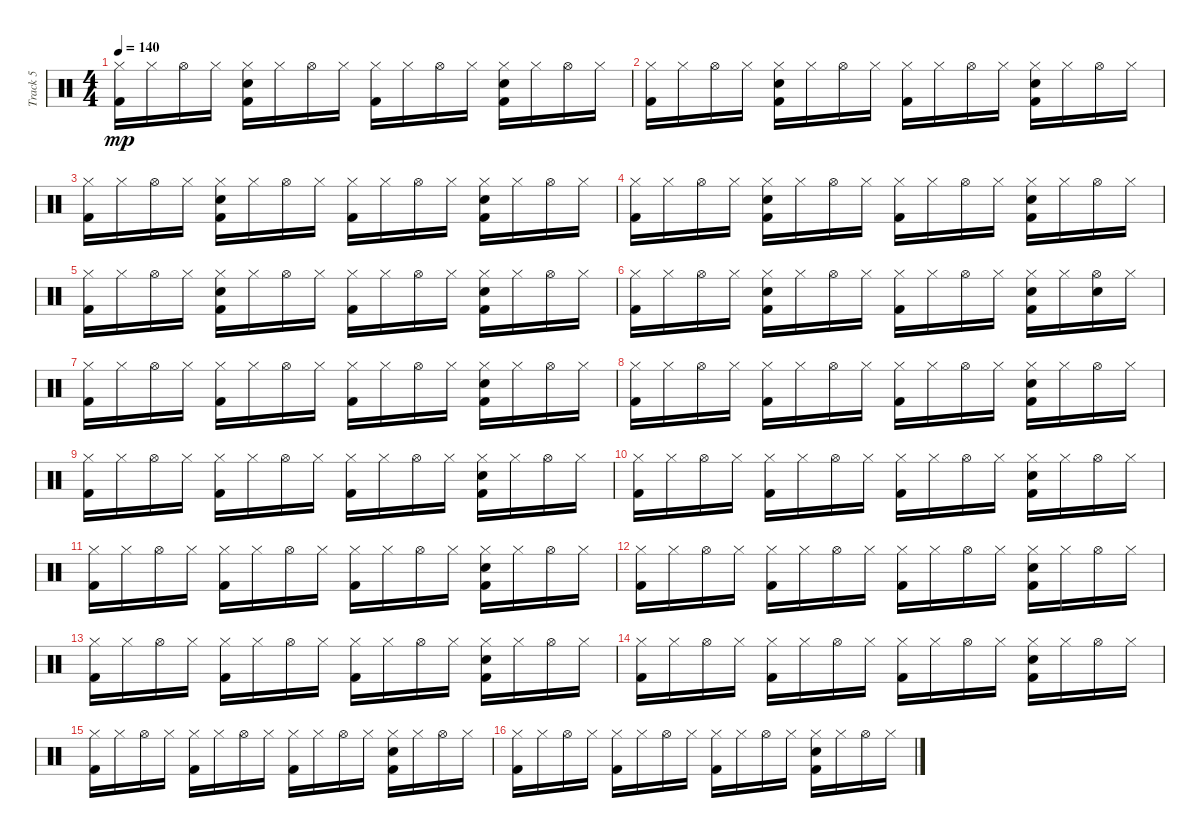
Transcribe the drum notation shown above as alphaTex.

\track ("Track 5" "Track 5") {instrument percussion}
\staff {score}
\articulation defaults
\ts (4 4)
\tempo 140
\clef neutral
\ks c
("Hi-Hat (closed)" "Kick (hit) 2").16{dy mp} "Hi-Hat (closed)".16 "Hi-Hat (open)".16 "Hi-Hat (closed)".16 ("Hi-Hat (closed)" "Electric Snare (hit)" "Kick (hit) 2").16 "Hi-Hat (closed)".16 "Hi-Hat (open)".16 "Hi-Hat (closed)".16 ("Hi-Hat (closed)" "Kick (hit) 2").16 "Hi-Hat (closed)".16 "Hi-Hat (open)".16 "Hi-Hat (closed)".16 ("Hi-Hat (closed)" "Electric Snare (hit)" "Kick (hit) 2").16 "Hi-Hat (closed)".16 "Hi-Hat (open)".16 "Hi-Hat (closed)".16 |
("Hi-Hat (closed)" "Kick (hit) 2").16 "Hi-Hat (closed)".16 "Hi-Hat (open)".16 "Hi-Hat (closed)".16 ("Hi-Hat (closed)" "Electric Snare (hit)" "Kick (hit) 2").16 "Hi-Hat (closed)".16 "Hi-Hat (open)".16 "Hi-Hat (closed)".16 ("Hi-Hat (closed)" "Kick (hit) 2").16 "Hi-Hat (closed)".16 "Hi-Hat (open)".16 "Hi-Hat (closed)".16 ("Hi-Hat (closed)" "Electric Snare (hit)" "Kick (hit) 2").16 "Hi-Hat (closed)".16 "Hi-Hat (open)".16 "Hi-Hat (closed)".16 |
("Hi-Hat (closed)" "Kick (hit) 2").16 "Hi-Hat (closed)".16 "Hi-Hat (open)".16 "Hi-Hat (closed)".16 ("Hi-Hat (closed)" "Electric Snare (hit)" "Kick (hit) 2").16 "Hi-Hat (closed)".16 "Hi-Hat (open)".16 "Hi-Hat (closed)".16 ("Hi-Hat (closed)" "Kick (hit) 2").16 "Hi-Hat (closed)".16 "Hi-Hat (open)".16 "Hi-Hat (closed)".16 ("Hi-Hat (closed)" "Electric Snare (hit)" "Kick (hit) 2").16 "Hi-Hat (closed)".16 "Hi-Hat (open)".16 "Hi-Hat (closed)".16 |
("Hi-Hat (closed)" "Kick (hit) 2").16 "Hi-Hat (closed)".16 "Hi-Hat (open)".16 "Hi-Hat (closed)".16 ("Hi-Hat (closed)" "Electric Snare (hit)" "Kick (hit) 2").16 "Hi-Hat (closed)".16 "Hi-Hat (open)".16 "Hi-Hat (closed)".16 ("Hi-Hat (closed)" "Kick (hit) 2").16 "Hi-Hat (closed)".16 "Hi-Hat (open)".16 "Hi-Hat (closed)".16 ("Hi-Hat (closed)" "Electric Snare (hit)" "Kick (hit) 2").16 "Hi-Hat (closed)".16 "Hi-Hat (open)".16 "Hi-Hat (closed)".16 |
("Hi-Hat (closed)" "Kick (hit) 2").16 "Hi-Hat (closed)".16 "Hi-Hat (open)".16 "Hi-Hat (closed)".16 ("Hi-Hat (closed)" "Electric Snare (hit)" "Kick (hit) 2").16 "Hi-Hat (closed)".16 "Hi-Hat (open)".16 "Hi-Hat (closed)".16 ("Hi-Hat (closed)" "Kick (hit) 2").16 "Hi-Hat (closed)".16 "Hi-Hat (open)".16 "Hi-Hat (closed)".16 ("Hi-Hat (closed)" "Electric Snare (hit)" "Kick (hit) 2").16 "Hi-Hat (closed)".16 "Hi-Hat (open)".16 "Hi-Hat (closed)".16 |
("Hi-Hat (closed)" "Kick (hit) 2").16 "Hi-Hat (closed)".16 "Hi-Hat (open)".16 "Hi-Hat (closed)".16 ("Hi-Hat (closed)" "Electric Snare (hit)" "Kick (hit) 2").16 "Hi-Hat (closed)".16 "Hi-Hat (open)".16 "Hi-Hat (closed)".16 ("Hi-Hat (closed)" "Kick (hit) 2").16 "Hi-Hat (closed)".16 "Hi-Hat (open)".16 "Hi-Hat (closed)".16 ("Hi-Hat (closed)" "Electric Snare (hit)" "Kick (hit) 2").16 "Hi-Hat (closed)".16 ("Hi-Hat (open)" "Electric Snare (hit)").16 "Hi-Hat (closed)".16 |
("Hi-Hat (closed)" "Kick (hit) 2").16 "Hi-Hat (closed)".16 "Hi-Hat (open)".16 "Hi-Hat (closed)".16 ("Hi-Hat (closed)" "Kick (hit) 2").16 "Hi-Hat (closed)".16 "Hi-Hat (open)".16 "Hi-Hat (closed)".16 ("Hi-Hat (closed)" "Kick (hit) 2").16 "Hi-Hat (closed)".16 "Hi-Hat (open)".16 "Hi-Hat (closed)".16 ("Hi-Hat (closed)" "Electric Snare (hit)" "Kick (hit) 2").16 "Hi-Hat (closed)".16 "Hi-Hat (open)".16 "Hi-Hat (closed)".16 |
("Hi-Hat (closed)" "Kick (hit) 2").16 "Hi-Hat (closed)".16 "Hi-Hat (open)".16 "Hi-Hat (closed)".16 ("Hi-Hat (closed)" "Kick (hit) 2").16 "Hi-Hat (closed)".16 "Hi-Hat (open)".16 "Hi-Hat (closed)".16 ("Hi-Hat (closed)" "Kick (hit) 2").16 "Hi-Hat (closed)".16 "Hi-Hat (open)".16 "Hi-Hat (closed)".16 ("Hi-Hat (closed)" "Electric Snare (hit)" "Kick (hit) 2").16 "Hi-Hat (closed)".16 "Hi-Hat (open)".16 "Hi-Hat (closed)".16 |
("Hi-Hat (closed)" "Kick (hit) 2").16 "Hi-Hat (closed)".16 "Hi-Hat (open)".16 "Hi-Hat (closed)".16 ("Hi-Hat (closed)" "Kick (hit) 2").16 "Hi-Hat (closed)".16 "Hi-Hat (open)".16 "Hi-Hat (closed)".16 ("Hi-Hat (closed)" "Kick (hit) 2").16 "Hi-Hat (closed)".16 "Hi-Hat (open)".16 "Hi-Hat (closed)".16 ("Hi-Hat (closed)" "Electric Snare (hit)" "Kick (hit) 2").16 "Hi-Hat (closed)".16 "Hi-Hat (open)".16 "Hi-Hat (closed)".16 |
("Hi-Hat (closed)" "Kick (hit) 2").16 "Hi-Hat (closed)".16 "Hi-Hat (open)".16 "Hi-Hat (closed)".16 ("Hi-Hat (closed)" "Kick (hit) 2").16 "Hi-Hat (closed)".16 "Hi-Hat (open)".16 "Hi-Hat (closed)".16 ("Hi-Hat (closed)" "Kick (hit) 2").16 "Hi-Hat (closed)".16 "Hi-Hat (open)".16 "Hi-Hat (closed)".16 ("Hi-Hat (closed)" "Electric Snare (hit)" "Kick (hit) 2").16 "Hi-Hat (closed)".16 "Hi-Hat (open)".16 "Hi-Hat (closed)".16 |
("Hi-Hat (closed)" "Kick (hit) 2").16 "Hi-Hat (closed)".16 "Hi-Hat (open)".16 "Hi-Hat (closed)".16 ("Hi-Hat (closed)" "Kick (hit) 2").16 "Hi-Hat (closed)".16 "Hi-Hat (open)".16 "Hi-Hat (closed)".16 ("Hi-Hat (closed)" "Kick (hit) 2").16 "Hi-Hat (closed)".16 "Hi-Hat (open)".16 "Hi-Hat (closed)".16 ("Hi-Hat (closed)" "Electric Snare (hit)" "Kick (hit) 2").16 "Hi-Hat (closed)".16 "Hi-Hat (open)".16 "Hi-Hat (closed)".16 |
("Hi-Hat (closed)" "Kick (hit) 2").16 "Hi-Hat (closed)".16 "Hi-Hat (open)".16 "Hi-Hat (closed)".16 ("Hi-Hat (closed)" "Kick (hit) 2").16 "Hi-Hat (closed)".16 "Hi-Hat (open)".16 "Hi-Hat (closed)".16 ("Hi-Hat (closed)" "Kick (hit) 2").16 "Hi-Hat (closed)".16 "Hi-Hat (open)".16 "Hi-Hat (closed)".16 ("Hi-Hat (closed)" "Electric Snare (hit)" "Kick (hit) 2").16 "Hi-Hat (closed)".16 "Hi-Hat (open)".16 "Hi-Hat (closed)".16 |
("Hi-Hat (closed)" "Kick (hit) 2").16 "Hi-Hat (closed)".16 "Hi-Hat (open)".16 "Hi-Hat (closed)".16 ("Hi-Hat (closed)" "Kick (hit) 2").16 "Hi-Hat (closed)".16 "Hi-Hat (open)".16 "Hi-Hat (closed)".16 ("Hi-Hat (closed)" "Kick (hit) 2").16 "Hi-Hat (closed)".16 "Hi-Hat (open)".16 "Hi-Hat (closed)".16 ("Hi-Hat (closed)" "Electric Snare (hit)" "Kick (hit) 2").16 "Hi-Hat (closed)".16 "Hi-Hat (open)".16 "Hi-Hat (closed)".16 |
("Hi-Hat (closed)" "Kick (hit) 2").16 "Hi-Hat (closed)".16 "Hi-Hat (open)".16 "Hi-Hat (closed)".16 ("Hi-Hat (closed)" "Kick (hit) 2").16 "Hi-Hat (closed)".16 "Hi-Hat (open)".16 "Hi-Hat (closed)".16 ("Hi-Hat (closed)" "Kick (hit) 2").16 "Hi-Hat (closed)".16 "Hi-Hat (open)".16 "Hi-Hat (closed)".16 ("Hi-Hat (closed)" "Electric Snare (hit)" "Kick (hit) 2").16 "Hi-Hat (closed)".16 "Hi-Hat (open)".16 "Hi-Hat (closed)".16 |
("Hi-Hat (closed)" "Kick (hit) 2").16 "Hi-Hat (closed)".16 "Hi-Hat (open)".16 "Hi-Hat (closed)".16 ("Hi-Hat (closed)" "Kick (hit) 2").16 "Hi-Hat (closed)".16 "Hi-Hat (open)".16 "Hi-Hat (closed)".16 ("Hi-Hat (closed)" "Kick (hit) 2").16 "Hi-Hat (closed)".16 "Hi-Hat (open)".16 "Hi-Hat (closed)".16 ("Hi-Hat (closed)" "Electric Snare (hit)" "Kick (hit) 2").16 "Hi-Hat (closed)".16 "Hi-Hat (open)".16 "Hi-Hat (closed)".16 |
("Hi-Hat (closed)" "Kick (hit) 2").16 "Hi-Hat (closed)".16 "Hi-Hat (open)".16 "Hi-Hat (closed)".16 ("Hi-Hat (closed)" "Kick (hit) 2").16 "Hi-Hat (closed)".16 "Hi-Hat (open)".16 "Hi-Hat (closed)".16 ("Hi-Hat (closed)" "Kick (hit) 2").16 "Hi-Hat (closed)".16 "Hi-Hat (open)".16 "Hi-Hat (closed)".16 ("Hi-Hat (closed)" "Electric Snare (hit)" "Kick (hit) 2").16 "Hi-Hat (closed)".16 "Hi-Hat (open)".16 "Hi-Hat (closed)".16
